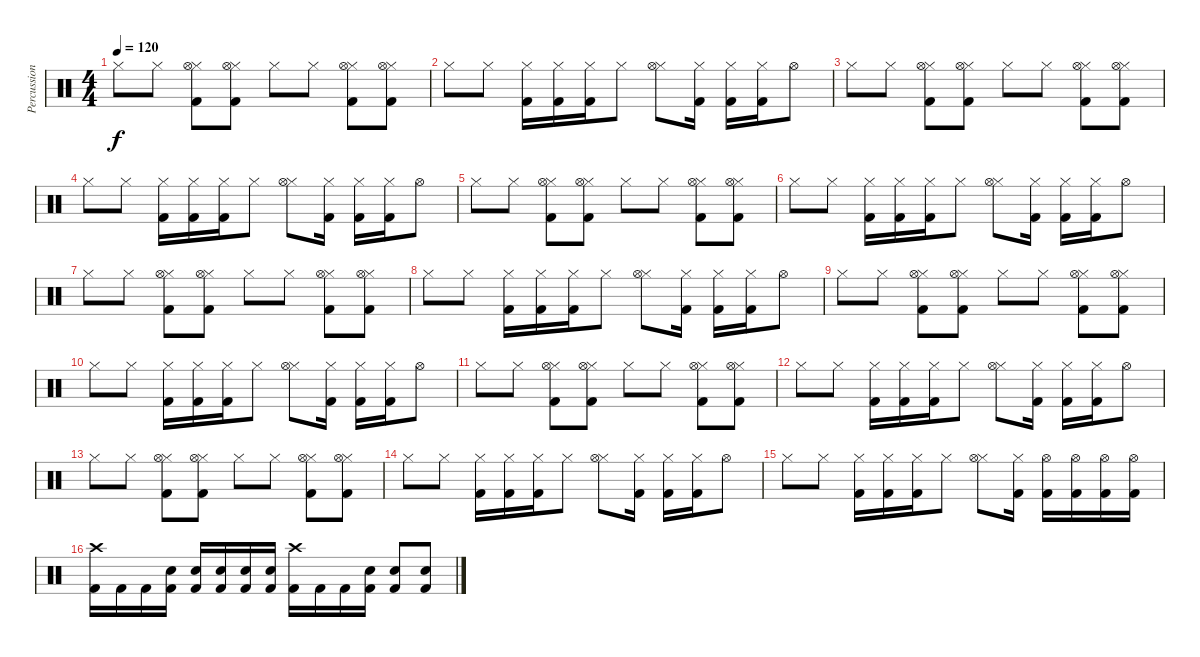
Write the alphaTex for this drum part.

\track ("Percussioni" "Percussion") {instrument percussion}
\staff {score}
\articulation defaults
\ts (4 4)
\tempo 120
\clef neutral
\ks c "Hi-Hat (closed)".8{dy f} "Hi-Hat (closed)".8
("Hi-Hat (closed)" "Hi-Hat (open)" "Kick (hit) 2").8 ("Hi-Hat (closed)" "Hi-Hat (open)" "Kick (hit) 2").8 "Hi-Hat (closed)".8 "Hi-Hat (closed)".8 ("Hi-Hat (closed)" "Hi-Hat (open)" "Kick (hit) 2").8 ("Hi-Hat (closed)" "Hi-Hat (open)" "Kick (hit) 2").8 |
"Hi-Hat (closed)".8 "Hi-Hat (closed)".8 ("Hi-Hat (closed)" "Kick (hit) 2").16 ("Hi-Hat (closed)" "Kick (hit) 2").16 ("Hi-Hat (closed)" "Kick (hit) 2").16 "Hi-Hat (closed)".8 ("Hi-Hat (closed)" "Hi-Hat (open)").8 ("Hi-Hat (closed)" "Kick (hit) 2").16 ("Hi-Hat (closed)" "Kick (hit) 2").16 ("Hi-Hat (closed)" "Kick (hit) 2").16 "Hi-Hat (open)".8 |
"Hi-Hat (closed)".8 "Hi-Hat (closed)".8 ("Hi-Hat (closed)" "Hi-Hat (open)" "Kick (hit) 2").8 ("Hi-Hat (closed)" "Hi-Hat (open)" "Kick (hit) 2").8 "Hi-Hat (closed)".8 "Hi-Hat (closed)".8 ("Hi-Hat (closed)" "Hi-Hat (open)" "Kick (hit) 2").8 ("Hi-Hat (closed)" "Hi-Hat (open)" "Kick (hit) 2").8 |
"Hi-Hat (closed)".8 "Hi-Hat (closed)".8 ("Hi-Hat (closed)" "Kick (hit) 2").16 ("Hi-Hat (closed)" "Kick (hit) 2").16 ("Hi-Hat (closed)" "Kick (hit) 2").16 "Hi-Hat (closed)".8 ("Hi-Hat (closed)" "Hi-Hat (open)").8 ("Hi-Hat (closed)" "Kick (hit) 2").16 ("Hi-Hat (closed)" "Kick (hit) 2").16 ("Hi-Hat (closed)" "Kick (hit) 2").16 "Hi-Hat (open)".8 |
"Hi-Hat (closed)".8 "Hi-Hat (closed)".8 ("Hi-Hat (closed)" "Hi-Hat (open)" "Kick (hit) 2").8 ("Hi-Hat (closed)" "Hi-Hat (open)" "Kick (hit) 2").8 "Hi-Hat (closed)".8 "Hi-Hat (closed)".8 ("Hi-Hat (closed)" "Hi-Hat (open)" "Kick (hit) 2").8 ("Hi-Hat (closed)" "Hi-Hat (open)" "Kick (hit) 2").8 |
"Hi-Hat (closed)".8 "Hi-Hat (closed)".8 ("Hi-Hat (closed)" "Kick (hit) 2").16 ("Hi-Hat (closed)" "Kick (hit) 2").16 ("Hi-Hat (closed)" "Kick (hit) 2").16 "Hi-Hat (closed)".8 ("Hi-Hat (closed)" "Hi-Hat (open)").8 ("Hi-Hat (closed)" "Kick (hit) 2").16 ("Hi-Hat (closed)" "Kick (hit) 2").16 ("Hi-Hat (closed)" "Kick (hit) 2").16 "Hi-Hat (open)".8 |
"Hi-Hat (closed)".8 "Hi-Hat (closed)".8 ("Hi-Hat (closed)" "Hi-Hat (open)" "Kick (hit) 2").8 ("Hi-Hat (closed)" "Hi-Hat (open)" "Kick (hit) 2").8 "Hi-Hat (closed)".8 "Hi-Hat (closed)".8 ("Hi-Hat (closed)" "Hi-Hat (open)" "Kick (hit) 2").8 ("Hi-Hat (closed)" "Hi-Hat (open)" "Kick (hit) 2").8 |
"Hi-Hat (closed)".8 "Hi-Hat (closed)".8 ("Hi-Hat (closed)" "Kick (hit) 2").16 ("Hi-Hat (closed)" "Kick (hit) 2").16 ("Hi-Hat (closed)" "Kick (hit) 2").16 "Hi-Hat (closed)".8 ("Hi-Hat (closed)" "Hi-Hat (open)").8 ("Hi-Hat (closed)" "Kick (hit) 2").16 ("Hi-Hat (closed)" "Kick (hit) 2").16 ("Hi-Hat (closed)" "Kick (hit) 2").16 "Hi-Hat (open)".8 |
"Hi-Hat (closed)".8 "Hi-Hat (closed)".8 ("Hi-Hat (closed)" "Hi-Hat (open)" "Kick (hit) 2").8 ("Hi-Hat (closed)" "Hi-Hat (open)" "Kick (hit) 2").8 "Hi-Hat (closed)".8 "Hi-Hat (closed)".8 ("Hi-Hat (closed)" "Hi-Hat (open)" "Kick (hit) 2").8 ("Hi-Hat (closed)" "Hi-Hat (open)" "Kick (hit) 2").8 |
"Hi-Hat (closed)".8 "Hi-Hat (closed)".8 ("Hi-Hat (closed)" "Kick (hit) 2").16 ("Hi-Hat (closed)" "Kick (hit) 2").16 ("Hi-Hat (closed)" "Kick (hit) 2").16 "Hi-Hat (closed)".8 ("Hi-Hat (closed)" "Hi-Hat (open)").8 ("Hi-Hat (closed)" "Kick (hit) 2").16 ("Hi-Hat (closed)" "Kick (hit) 2").16 ("Hi-Hat (closed)" "Kick (hit) 2").16 "Hi-Hat (open)".8 |
"Hi-Hat (closed)".8 "Hi-Hat (closed)".8 ("Hi-Hat (closed)" "Hi-Hat (open)" "Kick (hit) 2").8 ("Hi-Hat (closed)" "Hi-Hat (open)" "Kick (hit) 2").8 "Hi-Hat (closed)".8 "Hi-Hat (closed)".8 ("Hi-Hat (closed)" "Hi-Hat (open)" "Kick (hit) 2").8 ("Hi-Hat (closed)" "Hi-Hat (open)" "Kick (hit) 2").8 |
"Hi-Hat (closed)".8 "Hi-Hat (closed)".8 ("Hi-Hat (closed)" "Kick (hit) 2").16 ("Hi-Hat (closed)" "Kick (hit) 2").16 ("Hi-Hat (closed)" "Kick (hit) 2").16 "Hi-Hat (closed)".8 ("Hi-Hat (closed)" "Hi-Hat (open)").8 ("Hi-Hat (closed)" "Kick (hit) 2").16 ("Hi-Hat (closed)" "Kick (hit) 2").16 ("Hi-Hat (closed)" "Kick (hit) 2").16 "Hi-Hat (open)".8 |
"Hi-Hat (closed)".8 "Hi-Hat (closed)".8 ("Hi-Hat (closed)" "Hi-Hat (open)" "Kick (hit) 2").8 ("Hi-Hat (closed)" "Hi-Hat (open)" "Kick (hit) 2").8 "Hi-Hat (closed)".8 "Hi-Hat (closed)".8 ("Hi-Hat (closed)" "Hi-Hat (open)" "Kick (hit) 2").8 ("Hi-Hat (closed)" "Hi-Hat (open)" "Kick (hit) 2").8 |
"Hi-Hat (closed)".8 "Hi-Hat (closed)".8 ("Hi-Hat (closed)" "Kick (hit) 2").16 ("Hi-Hat (closed)" "Kick (hit) 2").16 ("Hi-Hat (closed)" "Kick (hit) 2").16 "Hi-Hat (closed)".8 ("Hi-Hat (closed)" "Hi-Hat (open)").8 ("Hi-Hat (closed)" "Kick (hit) 2").16 ("Hi-Hat (closed)" "Kick (hit) 2").16 ("Hi-Hat (closed)" "Kick (hit) 2").16 "Hi-Hat (open)".8 |
"Hi-Hat (closed)".8 "Hi-Hat (closed)".8 ("Hi-Hat (closed)" "Kick (hit) 2").16 ("Hi-Hat (closed)" "Kick (hit) 2").16 ("Hi-Hat (closed)" "Kick (hit) 2").16 "Hi-Hat (closed)".8 ("Hi-Hat (closed)" "Hi-Hat (open)").8 ("Hi-Hat (closed)" "Kick (hit) 2").16 ("Hi-Hat (open)" "Kick (hit) 2").16 ("Hi-Hat (open)" "Kick (hit) 2").16 ("Hi-Hat (open)" "Kick (hit) 2").16 ("Hi-Hat (open)" "Kick (hit) 2").16 |
("Kick (hit) 2" "Crash high (hit)").16 "Kick (hit) 2".16 "Kick (hit) 2".16 ("Kick (hit) 2" "Electric Snare (hit)").16 ("Kick (hit) 2" "Electric Snare (hit)").16 ("Kick (hit) 2" "Electric Snare (hit)").16 ("Kick (hit) 2" "Electric Snare (hit)").16 ("Kick (hit) 2" "Electric Snare (hit)").16 ("Kick (hit) 2" "Crash high (hit)").16 "Kick (hit) 2".16 "Kick (hit) 2".16 ("Kick (hit) 2" "Electric Snare (hit)").16 ("Kick (hit) 2" "Electric Snare (hit)").8 ("Kick (hit) 2" "Electric Snare (hit)").8
